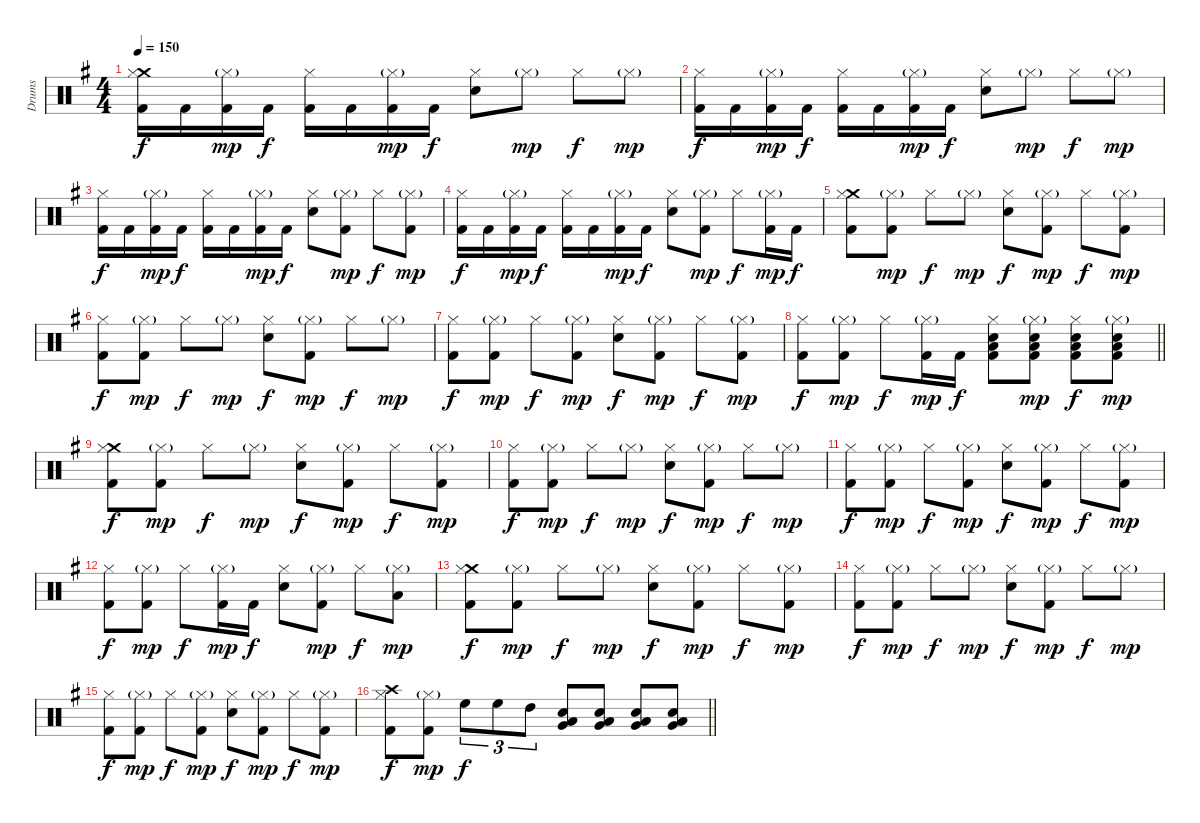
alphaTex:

\track ("Drums" "Drums") {instrument percussion}
\staff {score}
\articulation defaults
\ts (4 4)
\section ("" "")
\tempo 150
\clef neutral
\ks eminor
("Crash medium (hit)" "Hi-Hat (closed)" "Kick (hit) 2").16{dy f} "Kick (hit) 2".16 ("Hi-Hat (closed)"{g} "Kick (hit) 2").16{dy mp} "Kick (hit) 2".16{dy f} ("Hi-Hat (closed)" "Kick (hit) 2").16 "Kick (hit) 2".16 ("Hi-Hat (closed)"{g} "Kick (hit) 2").16{dy mp} "Kick (hit) 2".16{dy f} ("Hi-Hat (closed)" "Electric Snare (hit)").8 "Hi-Hat (closed)"{g}.8{dy mp} "Hi-Hat (closed)".8{dy f} "Hi-Hat (closed)"{g}.8{dy mp} |
("Hi-Hat (closed)" "Kick (hit) 2").16{dy f} "Kick (hit) 2".16 ("Hi-Hat (closed)"{g} "Kick (hit) 2").16{dy mp} "Kick (hit) 2".16{dy f} ("Hi-Hat (closed)" "Kick (hit) 2").16 "Kick (hit) 2".16 ("Hi-Hat (closed)"{g} "Kick (hit) 2").16{dy mp} "Kick (hit) 2".16{dy f} ("Hi-Hat (closed)" "Electric Snare (hit)").8 "Hi-Hat (closed)"{g}.8{dy mp} "Hi-Hat (closed)".8{dy f} "Hi-Hat (closed)"{g}.8{dy mp} |
("Hi-Hat (closed)" "Kick (hit) 2").16{dy f} "Kick (hit) 2".16 ("Hi-Hat (closed)"{g} "Kick (hit) 2").16{dy mp} "Kick (hit) 2".16{dy f} ("Hi-Hat (closed)" "Kick (hit) 2").16 "Kick (hit) 2".16 ("Hi-Hat (closed)"{g} "Kick (hit) 2").16{dy mp} "Kick (hit) 2".16{dy f} ("Hi-Hat (closed)" "Electric Snare (hit)").8 ("Hi-Hat (closed)"{g} "Kick (hit) 2").8{dy mp} "Hi-Hat (closed)".8{dy f} ("Hi-Hat (closed)"{g} "Kick (hit) 2").8{dy mp} |
("Hi-Hat (closed)" "Kick (hit) 2").16{dy f} "Kick (hit) 2".16 ("Hi-Hat (closed)"{g} "Kick (hit) 2").16{dy mp} "Kick (hit) 2".16{dy f} ("Hi-Hat (closed)" "Kick (hit) 2").16 "Kick (hit) 2".16 ("Hi-Hat (closed)"{g} "Kick (hit) 2").16{dy mp} "Kick (hit) 2".16{dy f} ("Hi-Hat (closed)" "Electric Snare (hit)").8 ("Hi-Hat (closed)"{g} "Kick (hit) 2").8{dy mp} "Hi-Hat (closed)".8{dy f} ("Hi-Hat (closed)"{g} "Kick (hit) 2").16{dy mp} "Kick (hit) 2".16{dy f} |
("Crash medium (hit)" "Hi-Hat (closed)" "Kick (hit) 2").8 ("Hi-Hat (closed)"{g} "Kick (hit) 2").8{dy mp} "Hi-Hat (closed)".8{dy f} "Hi-Hat (closed)"{g}.8{dy mp} ("Hi-Hat (closed)" "Electric Snare (hit)").8{dy f} ("Hi-Hat (closed)"{g} "Kick (hit) 2").8{dy mp} "Hi-Hat (closed)".8{dy f} ("Hi-Hat (closed)"{g} "Kick (hit) 2").8{dy mp} |
("Hi-Hat (closed)" "Kick (hit) 2").8{dy f} ("Hi-Hat (closed)"{g} "Kick (hit) 2").8{dy mp} "Hi-Hat (closed)".8{dy f} "Hi-Hat (closed)"{g}.8{dy mp} ("Hi-Hat (closed)" "Electric Snare (hit)").8{dy f} ("Hi-Hat (closed)"{g} "Kick (hit) 2").8{dy mp} "Hi-Hat (closed)".8{dy f} "Hi-Hat (closed)"{g}.8{dy mp} |
("Hi-Hat (closed)" "Kick (hit) 2").8{dy f} ("Hi-Hat (closed)"{g} "Kick (hit) 2").8{dy mp} "Hi-Hat (closed)".8{dy f} ("Hi-Hat (closed)"{g} "Kick (hit) 2").8{dy mp} ("Hi-Hat (closed)" "Electric Snare (hit)").8{dy f} ("Hi-Hat (closed)"{g} "Kick (hit) 2").8{dy mp} "Hi-Hat (closed)".8{dy f} ("Hi-Hat (closed)"{g} "Kick (hit) 2").8{dy mp} |
\barLineRight lightlight
("Hi-Hat (closed)" "Kick (hit) 2").8{dy f} ("Hi-Hat (closed)"{g} "Kick (hit) 2").8{dy mp} "Hi-Hat (closed)".8{dy f} ("Hi-Hat (closed)"{g} "Kick (hit) 2").16{dy mp} "Kick (hit) 2".16{dy f} ("Hi-Hat (closed)" "Electric Snare (hit)" "Low Tom (hit)" "Kick (hit) 2").8 ("Hi-Hat (closed)"{g} "Electric Snare (hit)" "Low Tom (hit)" "Kick (hit) 2").8{dy mp} ("Hi-Hat (closed)" "Electric Snare (hit)" "Low Tom (hit)" "Kick (hit) 2").8{dy f} ("Hi-Hat (closed)"{g} "Electric Snare (hit)" "Low Tom (hit)" "Kick (hit) 2").8{dy mp} |
\section ("" "")
("Crash medium (hit)" "Hi-Hat (closed)" "Kick (hit) 2").8{dy f} ("Hi-Hat (closed)"{g} "Kick (hit) 2").8{dy mp} "Hi-Hat (closed)".8{dy f} "Hi-Hat (closed)"{g}.8{dy mp} ("Hi-Hat (closed)" "Electric Snare (hit)").8{dy f} ("Hi-Hat (closed)"{g} "Kick (hit) 2").8{dy mp} "Hi-Hat (closed)".8{dy f} ("Hi-Hat (closed)"{g} "Kick (hit) 2").8{dy mp} |
("Hi-Hat (closed)" "Kick (hit) 2").8{dy f} ("Hi-Hat (closed)"{g} "Kick (hit) 2").8{dy mp} "Hi-Hat (closed)".8{dy f} "Hi-Hat (closed)"{g}.8{dy mp} ("Hi-Hat (closed)" "Electric Snare (hit)").8{dy f} ("Hi-Hat (closed)"{g} "Kick (hit) 2").8{dy mp} "Hi-Hat (closed)".8{dy f} "Hi-Hat (closed)"{g}.8{dy mp} |
("Hi-Hat (closed)" "Kick (hit) 2").8{dy f} ("Hi-Hat (closed)"{g} "Kick (hit) 2").8{dy mp} "Hi-Hat (closed)".8{dy f} ("Hi-Hat (closed)"{g} "Kick (hit) 2").8{dy mp} ("Hi-Hat (closed)" "Electric Snare (hit)").8{dy f} ("Hi-Hat (closed)"{g} "Kick (hit) 2").8{dy mp} "Hi-Hat (closed)".8{dy f} ("Hi-Hat (closed)"{g} "Kick (hit) 2").8{dy mp} |
("Hi-Hat (closed)" "Kick (hit) 2").8{dy f} ("Hi-Hat (closed)"{g} "Kick (hit) 2").8{dy mp} "Hi-Hat (closed)".8{dy f} ("Hi-Hat (closed)"{g} "Kick (hit) 2").16{dy mp} "Kick (hit) 2".16{dy f} ("Hi-Hat (closed)" "Electric Snare (hit)").8 ("Hi-Hat (closed)"{g} "Kick (hit) 2").8{dy mp} "Hi-Hat (closed)".8{dy f} ("Hi-Hat (closed)"{g} "Low Tom (hit)").8{dy mp} |
("Crash medium (hit)" "Hi-Hat (closed)" "Kick (hit) 2").8{dy f} ("Hi-Hat (closed)"{g} "Kick (hit) 2").8{dy mp} "Hi-Hat (closed)".8{dy f} "Hi-Hat (closed)"{g}.8{dy mp} ("Hi-Hat (closed)" "Electric Snare (hit)").8{dy f} ("Hi-Hat (closed)"{g} "Kick (hit) 2").8{dy mp} "Hi-Hat (closed)".8{dy f} ("Hi-Hat (closed)"{g} "Kick (hit) 2").8{dy mp} |
("Hi-Hat (closed)" "Kick (hit) 2").8{dy f} ("Hi-Hat (closed)"{g} "Kick (hit) 2").8{dy mp} "Hi-Hat (closed)".8{dy f} "Hi-Hat (closed)"{g}.8{dy mp} ("Hi-Hat (closed)" "Electric Snare (hit)").8{dy f} ("Hi-Hat (closed)"{g} "Kick (hit) 2").8{dy mp} "Hi-Hat (closed)".8{dy f} "Hi-Hat (closed)"{g}.8{dy mp} |
("Hi-Hat (closed)" "Kick (hit) 2").8{dy f} ("Hi-Hat (closed)"{g} "Kick (hit) 2").8{dy mp} "Hi-Hat (closed)".8{dy f} ("Hi-Hat (closed)"{g} "Kick (hit) 2").8{dy mp} ("Hi-Hat (closed)" "Electric Snare (hit)").8{dy f} ("Hi-Hat (closed)"{g} "Kick (hit) 2").8{dy mp} "Hi-Hat (closed)".8{dy f} ("Hi-Hat (closed)"{g} "Kick (hit) 2").8{dy mp} |
\barLineRight lightlight
("Crash high (hit)" "Hi-Hat (closed)" "Kick (hit) 2").8{dy f} ("Hi-Hat (closed)"{g} "Kick (hit) 2").8{dy mp} "High Floor Tom (hit)".8{tu (3 2) dy f} "High Floor Tom (hit)".8{tu (3 2)} "High Tom (hit)".8{tu (3 2)} ("Electric Snare (hit)" "Low Tom (hit)" "Very Low Tom (hit)").8 ("Electric Snare (hit)" "Low Tom (hit)" "Very Low Tom (hit)").8 ("Electric Snare (hit)" "Low Tom (hit)" "Very Low Tom (hit)").8 ("Electric Snare (hit)" "Low Tom (hit)" "Very Low Tom (hit)").8
